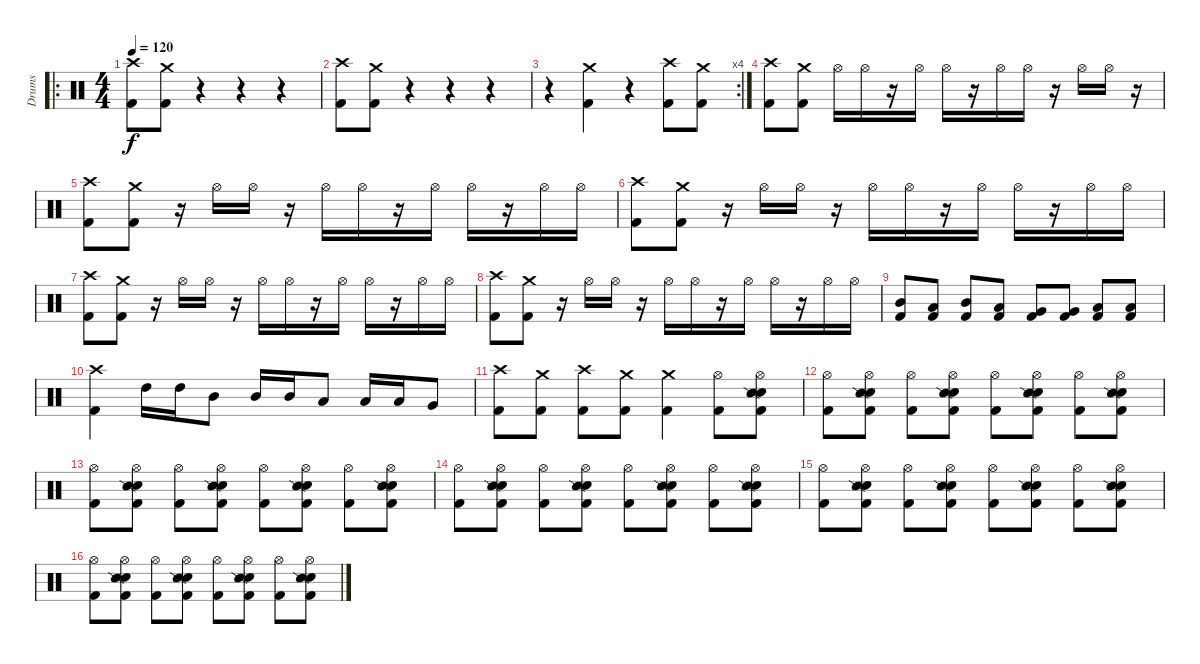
\track ("Drums" "Drums") {instrument percussion}
\staff {score}
\articulation defaults
\ro
\ts (4 4)
\tempo 120
\clef neutral
\ks c
("Crash high (hit)" "Kick (hit) 2").8{dy f} ("Crash medium (hit)" "Kick (hit) 2").8 r.4 r.4 r.4 |
("Crash high (hit)" "Kick (hit) 2").8 ("Crash medium (hit)" "Kick (hit) 2").8 r.4 r.4 r.4 |
\rc 4
r.4 ("Crash medium (hit)" "Kick (hit) 2").4 r.4 ("Crash high (hit)" "Kick (hit) 2").8 ("Crash medium (hit)" "Kick (hit) 2").8 |
("Crash high (hit)" "Kick (hit) 2").8 ("Crash medium (hit)" "Kick (hit) 2").8 "Hi-Hat (open)".16 "Hi-Hat (open)".16 r.16 "Hi-Hat (open)".16 "Hi-Hat (open)".16 r.16 "Hi-Hat (open)".16 "Hi-Hat (open)".16 r.16 "Hi-Hat (open)".16 "Hi-Hat (open)".16 r.16 |
("Crash high (hit)" "Kick (hit) 2").8 ("Crash medium (hit)" "Kick (hit) 2").8 r.16 "Hi-Hat (open)".16 "Hi-Hat (open)".16 r.16 "Hi-Hat (open)".16 "Hi-Hat (open)".16 r.16 "Hi-Hat (open)".16 "Hi-Hat (open)".16 r.16 "Hi-Hat (open)".16 "Hi-Hat (open)".16 |
("Crash high (hit)" "Kick (hit) 2").8 ("Crash medium (hit)" "Kick (hit) 2").8 r.16 "Hi-Hat (open)".16 "Hi-Hat (open)".16 r.16 "Hi-Hat (open)".16 "Hi-Hat (open)".16 r.16 "Hi-Hat (open)".16 "Hi-Hat (open)".16 r.16 "Hi-Hat (open)".16 "Hi-Hat (open)".16 |
("Crash high (hit)" "Kick (hit) 2").8 ("Crash medium (hit)" "Kick (hit) 2").8 r.16 "Hi-Hat (open)".16 "Hi-Hat (open)".16 r.16 "Hi-Hat (open)".16 "Hi-Hat (open)".16 r.16 "Hi-Hat (open)".16 "Hi-Hat (open)".16 r.16 "Hi-Hat (open)".16 "Hi-Hat (open)".16 |
("Crash high (hit)" "Kick (hit) 2").8 ("Crash medium (hit)" "Kick (hit) 2").8 r.16 "Hi-Hat (open)".16 "Hi-Hat (open)".16 r.16 "Hi-Hat (open)".16 "Hi-Hat (open)".16 r.16 "Hi-Hat (open)".16 "Hi-Hat (open)".16 r.16 "Hi-Hat (open)".16 "Hi-Hat (open)".16 |
("Mid Tom (hit)" "Kick (hit) 2").8 ("Low Tom (hit)" "Kick (hit) 2").8 ("Mid Tom (hit)" "Kick (hit) 2").8 ("Low Tom (hit)" "Kick (hit) 2").8 ("Very Low Tom (hit)" "Kick (hit) 2").8 ("Very Low Tom (hit)" "Kick (hit) 2").8 ("Low Floor Tom (hit)" "Kick (hit) 2").8 ("Low Floor Tom (hit)" "Kick (hit) 2").8 |
("Crash high (hit)" "Kick (hit) 2").4 "High Tom (hit)".16 "High Tom (hit)".16 "Mid Tom (hit)".8 "Mid Tom (hit)".16 "Mid Tom (hit)".16 "Low Tom (hit)".8 "Low Tom (hit)".16 "Low Tom (hit)".16 "Very Low Tom (hit)".8 |
("Crash high (hit)" "Kick (hit) 2").8 ("Crash medium (hit)" "Kick (hit) 2").8 ("Crash high (hit)" "Kick (hit) 2").8 ("Crash medium (hit)" "Kick (hit) 2").8 ("Crash medium (hit)" "Kick (hit) 2").4 ("Hi-Hat (open)" "Kick (hit) 2").8 ("Hi-Hat (open)" "Electric Snare (hit)" "Snare (side stick) 2" "Kick (hit) 2").8 |
("Hi-Hat (open)" "Kick (hit) 2").8 ("Hi-Hat (open)" "Electric Snare (hit)" "Snare (side stick) 2" "Kick (hit) 2").8 ("Hi-Hat (open)" "Kick (hit) 2").8 ("Hi-Hat (open)" "Electric Snare (hit)" "Snare (side stick) 2" "Kick (hit) 2").8 ("Hi-Hat (open)" "Kick (hit) 2").8 ("Hi-Hat (open)" "Electric Snare (hit)" "Snare (side stick) 2" "Kick (hit) 2").8 ("Hi-Hat (open)" "Kick (hit) 2").8 ("Hi-Hat (open)" "Electric Snare (hit)" "Snare (side stick) 2" "Kick (hit) 2").8 |
("Hi-Hat (open)" "Kick (hit) 2").8 ("Hi-Hat (open)" "Electric Snare (hit)" "Snare (side stick) 2" "Kick (hit) 2").8 ("Hi-Hat (open)" "Kick (hit) 2").8 ("Hi-Hat (open)" "Electric Snare (hit)" "Snare (side stick) 2" "Kick (hit) 2").8 ("Hi-Hat (open)" "Kick (hit) 2").8 ("Hi-Hat (open)" "Electric Snare (hit)" "Snare (side stick) 2" "Kick (hit) 2").8 ("Hi-Hat (open)" "Kick (hit) 2").8 ("Hi-Hat (open)" "Electric Snare (hit)" "Snare (side stick) 2" "Kick (hit) 2").8 |
("Hi-Hat (open)" "Kick (hit) 2").8 ("Hi-Hat (open)" "Electric Snare (hit)" "Snare (side stick) 2" "Kick (hit) 2").8 ("Hi-Hat (open)" "Kick (hit) 2").8 ("Hi-Hat (open)" "Electric Snare (hit)" "Snare (side stick) 2" "Kick (hit) 2").8 ("Hi-Hat (open)" "Kick (hit) 2").8 ("Hi-Hat (open)" "Electric Snare (hit)" "Snare (side stick) 2" "Kick (hit) 2").8 ("Hi-Hat (open)" "Kick (hit) 2").8 ("Hi-Hat (open)" "Electric Snare (hit)" "Snare (side stick) 2" "Kick (hit) 2").8 |
("Hi-Hat (open)" "Kick (hit) 2").8 ("Hi-Hat (open)" "Electric Snare (hit)" "Snare (side stick) 2" "Kick (hit) 2").8 ("Hi-Hat (open)" "Kick (hit) 2").8 ("Hi-Hat (open)" "Electric Snare (hit)" "Snare (side stick) 2" "Kick (hit) 2").8 ("Hi-Hat (open)" "Kick (hit) 2").8 ("Hi-Hat (open)" "Electric Snare (hit)" "Snare (side stick) 2" "Kick (hit) 2").8 ("Hi-Hat (open)" "Kick (hit) 2").8 ("Hi-Hat (open)" "Electric Snare (hit)" "Snare (side stick) 2" "Kick (hit) 2").8 |
("Hi-Hat (open)" "Kick (hit) 2").8 ("Hi-Hat (open)" "Electric Snare (hit)" "Snare (side stick) 2" "Kick (hit) 2").8 ("Hi-Hat (open)" "Kick (hit) 2").8 ("Hi-Hat (open)" "Electric Snare (hit)" "Snare (side stick) 2" "Kick (hit) 2").8 ("Hi-Hat (open)" "Kick (hit) 2").8 ("Hi-Hat (open)" "Electric Snare (hit)" "Snare (side stick) 2" "Kick (hit) 2").8 ("Hi-Hat (open)" "Kick (hit) 2").8 ("Hi-Hat (open)" "Electric Snare (hit)" "Snare (side stick) 2" "Kick (hit) 2").8
